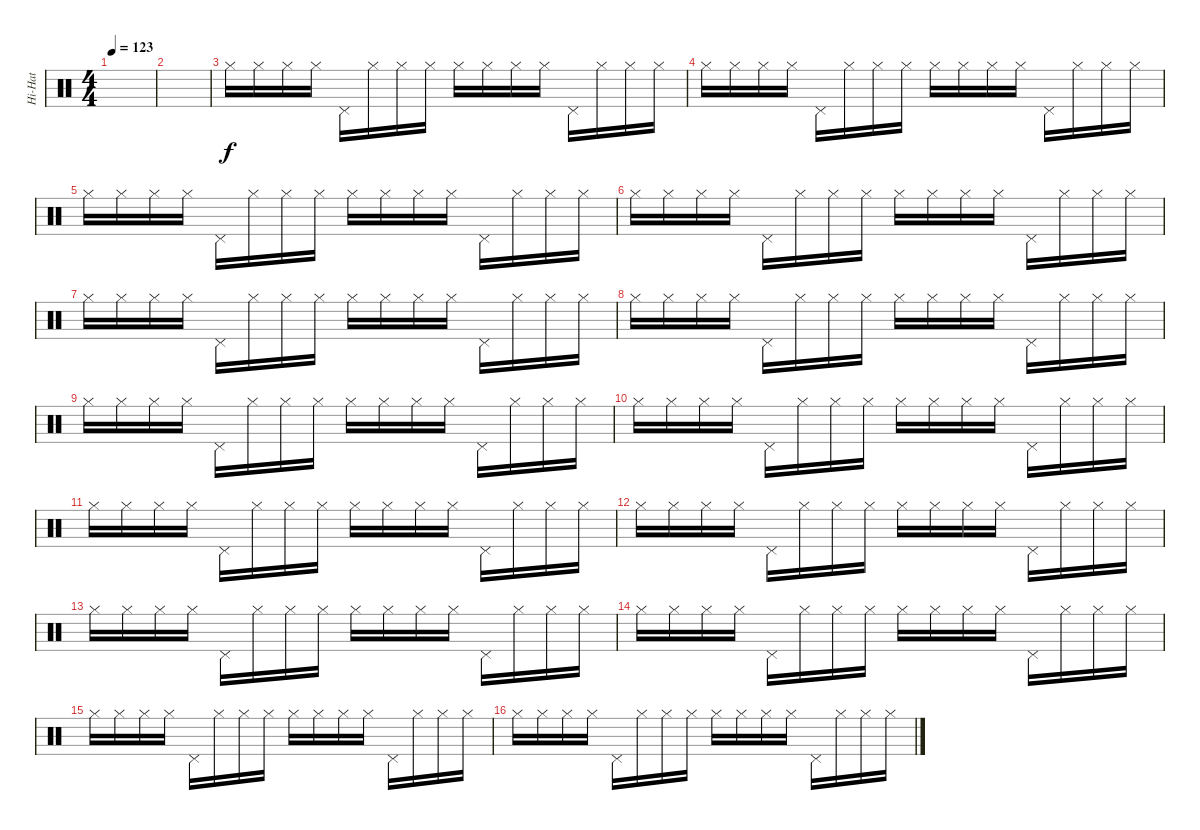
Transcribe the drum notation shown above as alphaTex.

\track ("Hi-Hat" "Hi-Hat") {instrument percussion}
\staff {score}
\articulation defaults
\ts (4 4)
\tempo 123
\clef neutral
\ks c
|
|
"Hi-Hat (closed)".16 "Hi-Hat (closed)".16 "Hi-Hat (closed)".16 "Hi-Hat (closed)".16 "Pedal Hi-Hat (hit)".16 "Hi-Hat (closed)".16 "Hi-Hat (closed)".16 "Hi-Hat (closed)".16 "Hi-Hat (closed)".16 "Hi-Hat (closed)".16 "Hi-Hat (closed)".16 "Hi-Hat (closed)".16 "Pedal Hi-Hat (hit)".16 "Hi-Hat (closed)".16 "Hi-Hat (closed)".16 "Hi-Hat (closed)".16 |
"Hi-Hat (closed)".16 "Hi-Hat (closed)".16 "Hi-Hat (closed)".16 "Hi-Hat (closed)".16 "Pedal Hi-Hat (hit)".16 "Hi-Hat (closed)".16 "Hi-Hat (closed)".16 "Hi-Hat (closed)".16 "Hi-Hat (closed)".16 "Hi-Hat (closed)".16 "Hi-Hat (closed)".16 "Hi-Hat (closed)".16 "Pedal Hi-Hat (hit)".16 "Hi-Hat (closed)".16 "Hi-Hat (closed)".16 "Hi-Hat (closed)".16 |
"Hi-Hat (closed)".16 "Hi-Hat (closed)".16 "Hi-Hat (closed)".16 "Hi-Hat (closed)".16 "Pedal Hi-Hat (hit)".16 "Hi-Hat (closed)".16 "Hi-Hat (closed)".16 "Hi-Hat (closed)".16 "Hi-Hat (closed)".16 "Hi-Hat (closed)".16 "Hi-Hat (closed)".16 "Hi-Hat (closed)".16 "Pedal Hi-Hat (hit)".16 "Hi-Hat (closed)".16 "Hi-Hat (closed)".16 "Hi-Hat (closed)".16 |
"Hi-Hat (closed)".16 "Hi-Hat (closed)".16 "Hi-Hat (closed)".16 "Hi-Hat (closed)".16 "Pedal Hi-Hat (hit)".16 "Hi-Hat (closed)".16 "Hi-Hat (closed)".16 "Hi-Hat (closed)".16 "Hi-Hat (closed)".16 "Hi-Hat (closed)".16 "Hi-Hat (closed)".16 "Hi-Hat (closed)".16 "Pedal Hi-Hat (hit)".16 "Hi-Hat (closed)".16 "Hi-Hat (closed)".16 "Hi-Hat (closed)".16 |
"Hi-Hat (closed)".16 "Hi-Hat (closed)".16 "Hi-Hat (closed)".16 "Hi-Hat (closed)".16 "Pedal Hi-Hat (hit)".16 "Hi-Hat (closed)".16 "Hi-Hat (closed)".16 "Hi-Hat (closed)".16 "Hi-Hat (closed)".16 "Hi-Hat (closed)".16 "Hi-Hat (closed)".16 "Hi-Hat (closed)".16 "Pedal Hi-Hat (hit)".16 "Hi-Hat (closed)".16 "Hi-Hat (closed)".16 "Hi-Hat (closed)".16 |
"Hi-Hat (closed)".16 "Hi-Hat (closed)".16 "Hi-Hat (closed)".16 "Hi-Hat (closed)".16 "Pedal Hi-Hat (hit)".16 "Hi-Hat (closed)".16 "Hi-Hat (closed)".16 "Hi-Hat (closed)".16 "Hi-Hat (closed)".16 "Hi-Hat (closed)".16 "Hi-Hat (closed)".16 "Hi-Hat (closed)".16 "Pedal Hi-Hat (hit)".16 "Hi-Hat (closed)".16 "Hi-Hat (closed)".16 "Hi-Hat (closed)".16 |
"Hi-Hat (closed)".16 "Hi-Hat (closed)".16 "Hi-Hat (closed)".16 "Hi-Hat (closed)".16 "Pedal Hi-Hat (hit)".16 "Hi-Hat (closed)".16 "Hi-Hat (closed)".16 "Hi-Hat (closed)".16 "Hi-Hat (closed)".16 "Hi-Hat (closed)".16 "Hi-Hat (closed)".16 "Hi-Hat (closed)".16 "Pedal Hi-Hat (hit)".16 "Hi-Hat (closed)".16 "Hi-Hat (closed)".16 "Hi-Hat (closed)".16 |
"Hi-Hat (closed)".16 "Hi-Hat (closed)".16 "Hi-Hat (closed)".16 "Hi-Hat (closed)".16 "Pedal Hi-Hat (hit)".16 "Hi-Hat (closed)".16 "Hi-Hat (closed)".16 "Hi-Hat (closed)".16 "Hi-Hat (closed)".16 "Hi-Hat (closed)".16 "Hi-Hat (closed)".16 "Hi-Hat (closed)".16 "Pedal Hi-Hat (hit)".16 "Hi-Hat (closed)".16 "Hi-Hat (closed)".16 "Hi-Hat (closed)".16 |
"Hi-Hat (closed)".16 "Hi-Hat (closed)".16 "Hi-Hat (closed)".16 "Hi-Hat (closed)".16 "Pedal Hi-Hat (hit)".16 "Hi-Hat (closed)".16 "Hi-Hat (closed)".16 "Hi-Hat (closed)".16 "Hi-Hat (closed)".16 "Hi-Hat (closed)".16 "Hi-Hat (closed)".16 "Hi-Hat (closed)".16 "Pedal Hi-Hat (hit)".16 "Hi-Hat (closed)".16 "Hi-Hat (closed)".16 "Hi-Hat (closed)".16 |
"Hi-Hat (closed)".16 "Hi-Hat (closed)".16 "Hi-Hat (closed)".16 "Hi-Hat (closed)".16 "Pedal Hi-Hat (hit)".16 "Hi-Hat (closed)".16 "Hi-Hat (closed)".16 "Hi-Hat (closed)".16 "Hi-Hat (closed)".16 "Hi-Hat (closed)".16 "Hi-Hat (closed)".16 "Hi-Hat (closed)".16 "Pedal Hi-Hat (hit)".16 "Hi-Hat (closed)".16 "Hi-Hat (closed)".16 "Hi-Hat (closed)".16 |
"Hi-Hat (closed)".16 "Hi-Hat (closed)".16 "Hi-Hat (closed)".16 "Hi-Hat (closed)".16 "Pedal Hi-Hat (hit)".16 "Hi-Hat (closed)".16 "Hi-Hat (closed)".16 "Hi-Hat (closed)".16 "Hi-Hat (closed)".16 "Hi-Hat (closed)".16 "Hi-Hat (closed)".16 "Hi-Hat (closed)".16 "Pedal Hi-Hat (hit)".16 "Hi-Hat (closed)".16 "Hi-Hat (closed)".16 "Hi-Hat (closed)".16 |
"Hi-Hat (closed)".16 "Hi-Hat (closed)".16 "Hi-Hat (closed)".16 "Hi-Hat (closed)".16 "Pedal Hi-Hat (hit)".16 "Hi-Hat (closed)".16 "Hi-Hat (closed)".16 "Hi-Hat (closed)".16 "Hi-Hat (closed)".16 "Hi-Hat (closed)".16 "Hi-Hat (closed)".16 "Hi-Hat (closed)".16 "Pedal Hi-Hat (hit)".16 "Hi-Hat (closed)".16 "Hi-Hat (closed)".16 "Hi-Hat (closed)".16 |
"Hi-Hat (closed)".16 "Hi-Hat (closed)".16 "Hi-Hat (closed)".16 "Hi-Hat (closed)".16 "Pedal Hi-Hat (hit)".16 "Hi-Hat (closed)".16 "Hi-Hat (closed)".16 "Hi-Hat (closed)".16 "Hi-Hat (closed)".16 "Hi-Hat (closed)".16 "Hi-Hat (closed)".16 "Hi-Hat (closed)".16 "Pedal Hi-Hat (hit)".16 "Hi-Hat (closed)".16 "Hi-Hat (closed)".16 "Hi-Hat (closed)".16 |
"Hi-Hat (closed)".16 "Hi-Hat (closed)".16 "Hi-Hat (closed)".16 "Hi-Hat (closed)".16 "Pedal Hi-Hat (hit)".16 "Hi-Hat (closed)".16 "Hi-Hat (closed)".16 "Hi-Hat (closed)".16 "Hi-Hat (closed)".16 "Hi-Hat (closed)".16 "Hi-Hat (closed)".16 "Hi-Hat (closed)".16 "Pedal Hi-Hat (hit)".16 "Hi-Hat (closed)".16 "Hi-Hat (closed)".16 "Hi-Hat (closed)".16
